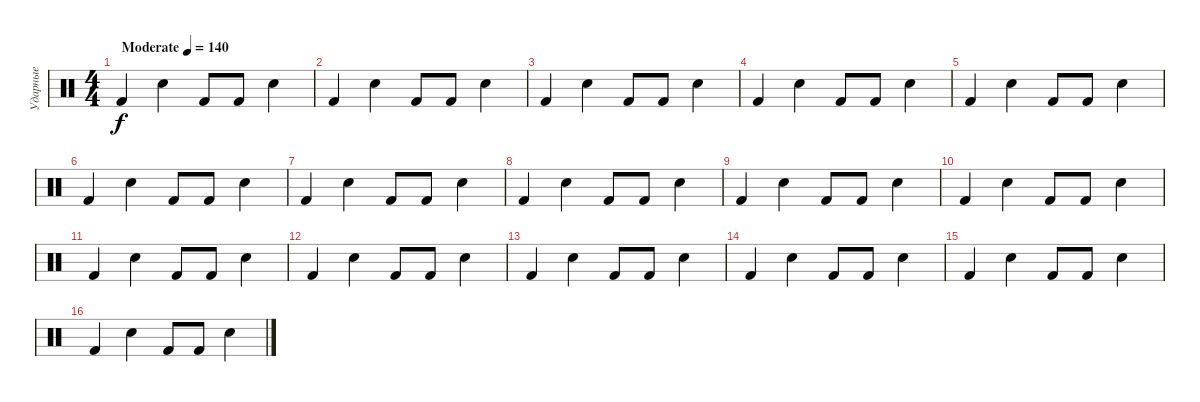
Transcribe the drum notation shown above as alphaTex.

\track ("Ударные" "Ударные") {instrument percussion}
\staff {score}
\articulation defaults
\ts (4 4)
\tempo (140 "Moderate")
\clef neutral
\ks c "Kick (hit) 2".4{dy f} "Electric Snare (hit)".4 "Kick (hit) 2".8 "Kick (hit) 2".8 "Electric Snare (hit)".4
|
"Kick (hit) 2".4 "Electric Snare (hit)".4 "Kick (hit) 2".8 "Kick (hit) 2".8 "Electric Snare (hit)".4 |
"Kick (hit) 2".4 "Electric Snare (hit)".4 "Kick (hit) 2".8 "Kick (hit) 2".8 "Electric Snare (hit)".4 |
"Kick (hit) 2".4 "Electric Snare (hit)".4 "Kick (hit) 2".8 "Kick (hit) 2".8 "Electric Snare (hit)".4 |
"Kick (hit) 2".4 "Electric Snare (hit)".4 "Kick (hit) 2".8 "Kick (hit) 2".8 "Electric Snare (hit)".4 |
"Kick (hit) 2".4 "Electric Snare (hit)".4 "Kick (hit) 2".8 "Kick (hit) 2".8 "Electric Snare (hit)".4 |
"Kick (hit) 2".4 "Electric Snare (hit)".4 "Kick (hit) 2".8 "Kick (hit) 2".8 "Electric Snare (hit)".4 |
"Kick (hit) 2".4 "Electric Snare (hit)".4 "Kick (hit) 2".8 "Kick (hit) 2".8 "Electric Snare (hit)".4 |
"Kick (hit) 2".4 "Electric Snare (hit)".4 "Kick (hit) 2".8 "Kick (hit) 2".8 "Electric Snare (hit)".4 |
"Kick (hit) 2".4 "Electric Snare (hit)".4 "Kick (hit) 2".8 "Kick (hit) 2".8 "Electric Snare (hit)".4 |
"Kick (hit) 2".4 "Electric Snare (hit)".4 "Kick (hit) 2".8 "Kick (hit) 2".8 "Electric Snare (hit)".4 |
"Kick (hit) 2".4 "Electric Snare (hit)".4 "Kick (hit) 2".8 "Kick (hit) 2".8 "Electric Snare (hit)".4 |
"Kick (hit) 2".4 "Electric Snare (hit)".4 "Kick (hit) 2".8 "Kick (hit) 2".8 "Electric Snare (hit)".4 |
"Kick (hit) 2".4 "Electric Snare (hit)".4 "Kick (hit) 2".8 "Kick (hit) 2".8 "Electric Snare (hit)".4 |
"Kick (hit) 2".4 "Electric Snare (hit)".4 "Kick (hit) 2".8 "Kick (hit) 2".8 "Electric Snare (hit)".4 |
"Kick (hit) 2".4 "Electric Snare (hit)".4 "Kick (hit) 2".8 "Kick (hit) 2".8 "Electric Snare (hit)".4
